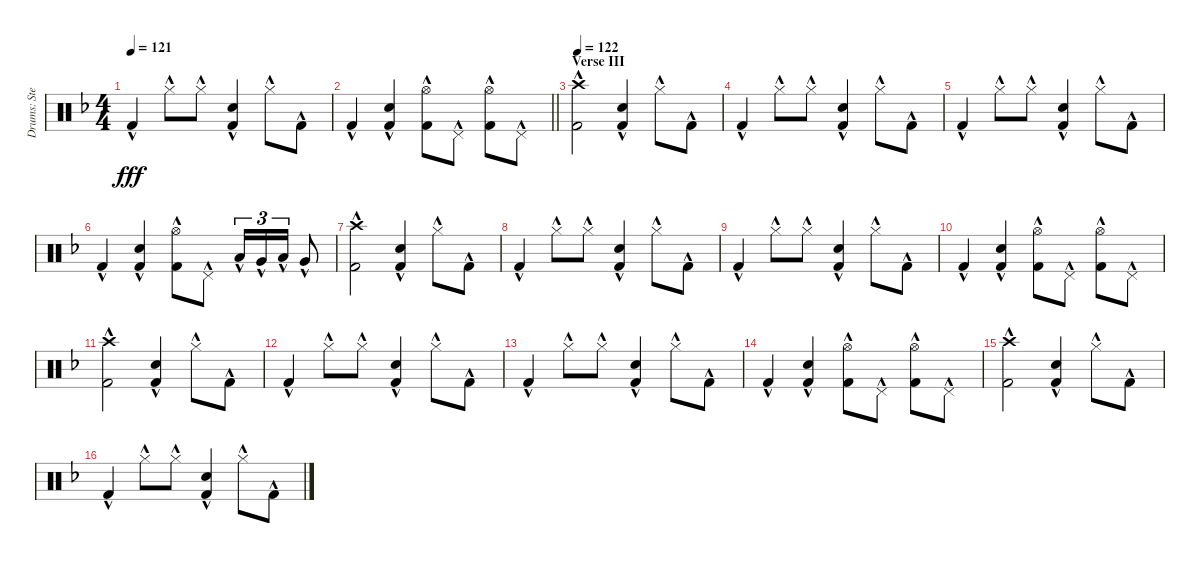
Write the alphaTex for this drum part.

\track ("Drums: Steve" "Drums: Ste") {instrument percussion}
\staff {score}
\articulation defaults
\ts (4 4)
\tempo 121
\clef neutral
\ks f "Kick (hit) 2"{hac}.4{dy fff} "Hi-Hat (closed)"{hac}.8 "Hi-Hat (closed)"{hac}.8
("Electric Snare (hit)"{hac} "Kick (hit) 2"{hac}).4 "Hi-Hat (closed)"{hac}.8 "Kick (hit) 2"{hac}.8 |
\barLineRight lightlight "Kick (hit) 2"{hac}.4
("Electric Snare (hit)"{hac} "Kick (hit) 2"{hac}).4 ("Hi-Hat (open)"{hac} "Kick (hit) 2"{hac}).8 "Pedal Hi-Hat (hit)"{hac}.8 ("Hi-Hat (open)"{hac} "Kick (hit) 2"{hac}).8 "Pedal Hi-Hat (hit)"{hac}.8 |
\section ("" "Verse III")
\tempo 122
("Crash high (hit)"{hac} "Kick (hit) 2"{hac}).2 ("Electric Snare (hit)"{hac} "Kick (hit) 2"{hac}).4 "Hi-Hat (closed)"{hac}.8 "Kick (hit) 2"{hac}.8 |
"Kick (hit) 2"{hac}.4 "Hi-Hat (closed)"{hac}.8 "Hi-Hat (closed)"{hac}.8 ("Electric Snare (hit)"{hac} "Kick (hit) 2"{hac}).4 "Hi-Hat (closed)"{hac}.8 "Kick (hit) 2"{hac}.8 |
"Kick (hit) 2"{hac}.4 "Hi-Hat (closed)"{hac}.8 "Hi-Hat (closed)"{hac}.8 ("Electric Snare (hit)"{hac} "Kick (hit) 2"{hac}).4 "Hi-Hat (closed)"{hac}.8 "Kick (hit) 2"{hac}.8 |
"Kick (hit) 2"{hac}.4 ("Electric Snare (hit)"{hac} "Kick (hit) 2"{hac}).4 ("Hi-Hat (open)"{hac} "Kick (hit) 2"{hac}).8 "Pedal Hi-Hat (hit)"{hac}.8 "Low Tom (hit)"{hac}.16{tu (3 2)} "Very Low Tom (hit)"{hac}.16{tu (3 2)} "Low Tom (hit)"{hac}.16{tu (3 2)} "Very Low Tom (hit)"{hac}.8 |
("Crash high (hit)"{hac} "Kick (hit) 2"{hac}).2 ("Electric Snare (hit)"{hac} "Kick (hit) 2"{hac}).4 "Hi-Hat (closed)"{hac}.8 "Kick (hit) 2"{hac}.8 |
"Kick (hit) 2"{hac}.4 "Hi-Hat (closed)"{hac}.8 "Hi-Hat (closed)"{hac}.8 ("Electric Snare (hit)"{hac} "Kick (hit) 2"{hac}).4 "Hi-Hat (closed)"{hac}.8 "Kick (hit) 2"{hac}.8 |
"Kick (hit) 2"{hac}.4 "Hi-Hat (closed)"{hac}.8 "Hi-Hat (closed)"{hac}.8 ("Electric Snare (hit)"{hac} "Kick (hit) 2"{hac}).4 "Hi-Hat (closed)"{hac}.8 "Kick (hit) 2"{hac}.8 |
"Kick (hit) 2"{hac}.4 ("Electric Snare (hit)"{hac} "Kick (hit) 2"{hac}).4 ("Hi-Hat (open)"{hac} "Kick (hit) 2"{hac}).8 "Pedal Hi-Hat (hit)"{hac}.8 ("Hi-Hat (open)"{hac} "Kick (hit) 2"{hac}).8 "Pedal Hi-Hat (hit)"{hac}.8 |
("Crash high (hit)"{hac} "Kick (hit) 2"{hac}).2 ("Electric Snare (hit)"{hac} "Kick (hit) 2"{hac}).4 "Hi-Hat (closed)"{hac}.8 "Kick (hit) 2"{hac}.8 |
"Kick (hit) 2"{hac}.4 "Hi-Hat (closed)"{hac}.8 "Hi-Hat (closed)"{hac}.8 ("Electric Snare (hit)"{hac} "Kick (hit) 2"{hac}).4 "Hi-Hat (closed)"{hac}.8 "Kick (hit) 2"{hac}.8 |
"Kick (hit) 2"{hac}.4 "Hi-Hat (closed)"{hac}.8 "Hi-Hat (closed)"{hac}.8 ("Electric Snare (hit)"{hac} "Kick (hit) 2"{hac}).4 "Hi-Hat (closed)"{hac}.8 "Kick (hit) 2"{hac}.8 |
"Kick (hit) 2"{hac}.4 ("Electric Snare (hit)"{hac} "Kick (hit) 2"{hac}).4 ("Hi-Hat (open)"{hac} "Kick (hit) 2"{hac}).8 "Pedal Hi-Hat (hit)"{hac}.8 ("Hi-Hat (open)"{hac} "Kick (hit) 2"{hac}).8 "Pedal Hi-Hat (hit)"{hac}.8 |
("Crash high (hit)"{hac} "Kick (hit) 2"{hac}).2 ("Electric Snare (hit)"{hac} "Kick (hit) 2"{hac}).4 "Hi-Hat (closed)"{hac}.8 "Kick (hit) 2"{hac}.8 |
"Kick (hit) 2"{hac}.4 "Hi-Hat (closed)"{hac}.8 "Hi-Hat (closed)"{hac}.8 ("Electric Snare (hit)"{hac} "Kick (hit) 2"{hac}).4 "Hi-Hat (closed)"{hac}.8 "Kick (hit) 2"{hac}.8
